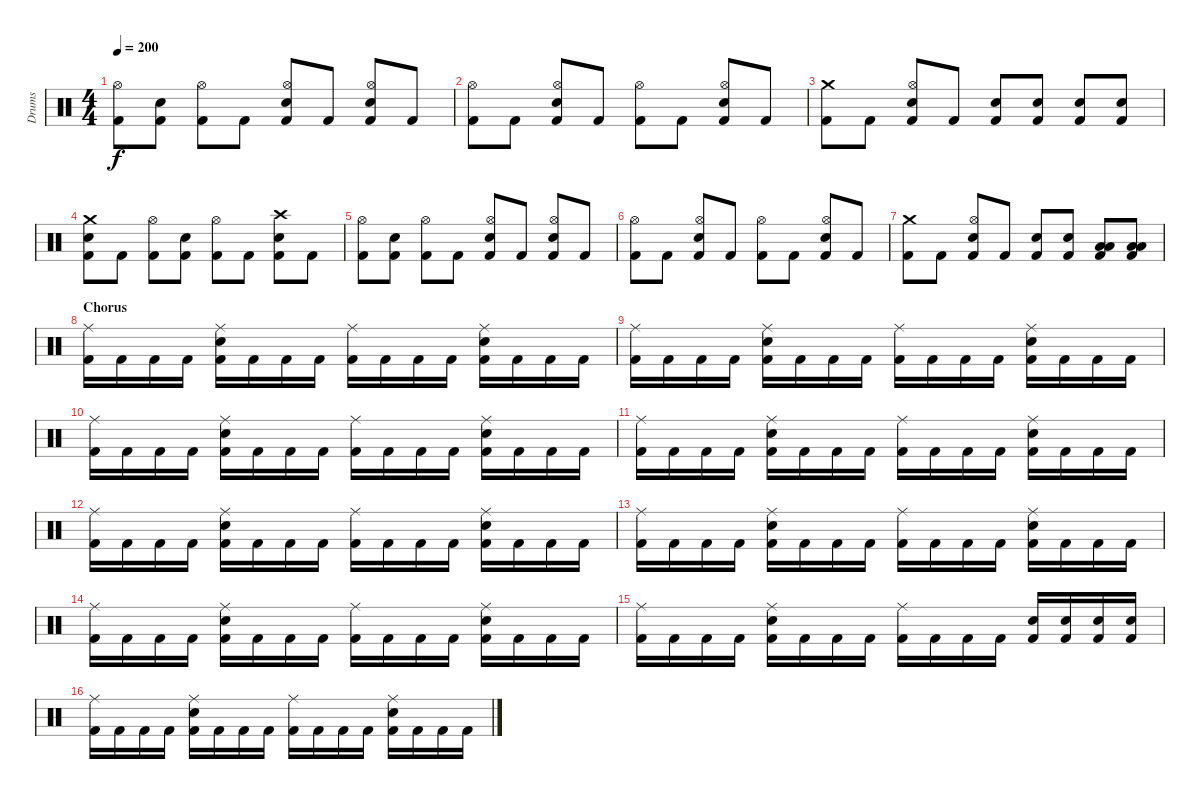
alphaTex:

\track ("Drums" "Drums") {instrument percussion}
\staff {score}
\articulation defaults
\ts (4 4)
\tempo 200
\clef neutral
\ks c
("Kick (hit) 2" "Hi-Hat (open)").8{dy f} ("Kick (hit) 2" "Snare (hit) 2").8 ("Kick (hit) 2" "Hi-Hat (open)").8 "Kick (hit) 2".8 ("Kick (hit) 2" "Snare (hit) 2" "Hi-Hat (open)").8 "Kick (hit) 2".8 ("Kick (hit) 2" "Snare (hit) 2" "Hi-Hat (open)").8 "Kick (hit) 2".8 |
("Kick (hit) 2" "Hi-Hat (open)").8 "Kick (hit) 2".8 ("Kick (hit) 2" "Snare (hit) 2" "Hi-Hat (open)").8 "Kick (hit) 2".8 ("Kick (hit) 2" "Hi-Hat (open)").8 "Kick (hit) 2".8 ("Kick (hit) 2" "Snare (hit) 2" "Hi-Hat (open)").8 "Kick (hit) 2".8 |
("Kick (hit) 2" "Crash medium (hit)").8 "Kick (hit) 2".8 ("Kick (hit) 2" "Snare (hit) 2" "Hi-Hat (open)").8 "Kick (hit) 2".8 ("Kick (hit) 2" "Snare (hit) 2").8 ("Kick (hit) 2" "Snare (hit) 2").8 ("Kick (hit) 2" "Snare (hit) 2").8 ("Kick (hit) 2" "Snare (hit) 2").8 |
("Kick (hit) 2" "Snare (hit) 2" "Crash medium (hit)").8 "Kick (hit) 2".8 ("Kick (hit) 2" "Hi-Hat (open)").8 ("Kick (hit) 2" "Snare (hit) 2").8 ("Kick (hit) 2" "Hi-Hat (open)").8 "Kick (hit) 2".8 ("Kick (hit) 2" "Snare (hit) 2" "Crash high (hit)").8 "Kick (hit) 2".8 |
("Kick (hit) 2" "Hi-Hat (open)").8 ("Kick (hit) 2" "Snare (hit) 2").8 ("Kick (hit) 2" "Hi-Hat (open)").8 "Kick (hit) 2".8 ("Kick (hit) 2" "Snare (hit) 2" "Hi-Hat (open)").8 "Kick (hit) 2".8 ("Kick (hit) 2" "Snare (hit) 2" "Hi-Hat (open)").8 "Kick (hit) 2".8 |
("Kick (hit) 2" "Hi-Hat (open)").8 "Kick (hit) 2".8 ("Kick (hit) 2" "Snare (hit) 2" "Hi-Hat (open)").8 "Kick (hit) 2".8 ("Kick (hit) 2" "Hi-Hat (open)").8 "Kick (hit) 2".8 ("Kick (hit) 2" "Snare (hit) 2" "Hi-Hat (open)").8 "Kick (hit) 2".8 |
("Kick (hit) 2" "Crash medium (hit)").8 "Kick (hit) 2".8 ("Kick (hit) 2" "Snare (hit) 2" "Hi-Hat (open)").8 "Kick (hit) 2".8 ("Kick (hit) 2" "Snare (hit) 2").8 ("Kick (hit) 2" "Snare (hit) 2").8 ("Kick (hit) 2" "Low Tom (hit)" "Low Tom (hit)").8 ("Kick (hit) 2" "Low Tom (hit)" "Low Tom (hit)").8 |
\section ("" "Chorus")
("Kick (hit) 2" "Ride (middle)").16 "Kick (hit) 2".16 "Kick (hit) 2".16 "Kick (hit) 2".16 ("Kick (hit) 2" "Snare (hit) 2" "Ride (middle)").16 "Kick (hit) 2".16 "Kick (hit) 2".16 "Kick (hit) 2".16 ("Kick (hit) 2" "Ride (middle)").16 "Kick (hit) 2".16 "Kick (hit) 2".16 "Kick (hit) 2".16 ("Kick (hit) 2" "Snare (hit) 2" "Ride (middle)").16 "Kick (hit) 2".16 "Kick (hit) 2".16 "Kick (hit) 2".16 |
("Kick (hit) 2" "Ride (middle)").16 "Kick (hit) 2".16 "Kick (hit) 2".16 "Kick (hit) 2".16 ("Kick (hit) 2" "Snare (hit) 2" "Ride (middle)").16 "Kick (hit) 2".16 "Kick (hit) 2".16 "Kick (hit) 2".16 ("Kick (hit) 2" "Ride (middle)").16 "Kick (hit) 2".16 "Kick (hit) 2".16 "Kick (hit) 2".16 ("Kick (hit) 2" "Snare (hit) 2" "Ride (middle)").16 "Kick (hit) 2".16 "Kick (hit) 2".16 "Kick (hit) 2".16 |
("Kick (hit) 2" "Ride (middle)").16 "Kick (hit) 2".16 "Kick (hit) 2".16 "Kick (hit) 2".16 ("Kick (hit) 2" "Snare (hit) 2" "Ride (middle)").16 "Kick (hit) 2".16 "Kick (hit) 2".16 "Kick (hit) 2".16 ("Kick (hit) 2" "Ride (middle)").16 "Kick (hit) 2".16 "Kick (hit) 2".16 "Kick (hit) 2".16 ("Kick (hit) 2" "Snare (hit) 2" "Ride (middle)").16 "Kick (hit) 2".16 "Kick (hit) 2".16 "Kick (hit) 2".16 |
("Kick (hit) 2" "Ride (middle)").16 "Kick (hit) 2".16 "Kick (hit) 2".16 "Kick (hit) 2".16 ("Kick (hit) 2" "Snare (hit) 2" "Ride (middle)").16 "Kick (hit) 2".16 "Kick (hit) 2".16 "Kick (hit) 2".16 ("Kick (hit) 2" "Ride (middle)").16 "Kick (hit) 2".16 "Kick (hit) 2".16 "Kick (hit) 2".16 ("Kick (hit) 2" "Snare (hit) 2" "Ride (middle)").16 "Kick (hit) 2".16 "Kick (hit) 2".16 "Kick (hit) 2".16 |
("Kick (hit) 2" "Ride (middle)").16 "Kick (hit) 2".16 "Kick (hit) 2".16 "Kick (hit) 2".16 ("Kick (hit) 2" "Snare (hit) 2" "Ride (middle)").16 "Kick (hit) 2".16 "Kick (hit) 2".16 "Kick (hit) 2".16 ("Kick (hit) 2" "Ride (middle)").16 "Kick (hit) 2".16 "Kick (hit) 2".16 "Kick (hit) 2".16 ("Kick (hit) 2" "Snare (hit) 2" "Ride (middle)").16 "Kick (hit) 2".16 "Kick (hit) 2".16 "Kick (hit) 2".16 |
("Kick (hit) 2" "Ride (middle)").16 "Kick (hit) 2".16 "Kick (hit) 2".16 "Kick (hit) 2".16 ("Kick (hit) 2" "Snare (hit) 2" "Ride (middle)").16 "Kick (hit) 2".16 "Kick (hit) 2".16 "Kick (hit) 2".16 ("Kick (hit) 2" "Ride (middle)").16 "Kick (hit) 2".16 "Kick (hit) 2".16 "Kick (hit) 2".16 ("Kick (hit) 2" "Snare (hit) 2" "Ride (middle)").16 "Kick (hit) 2".16 "Kick (hit) 2".16 "Kick (hit) 2".16 |
("Kick (hit) 2" "Ride (middle)").16 "Kick (hit) 2".16 "Kick (hit) 2".16 "Kick (hit) 2".16 ("Kick (hit) 2" "Snare (hit) 2" "Ride (middle)").16 "Kick (hit) 2".16 "Kick (hit) 2".16 "Kick (hit) 2".16 ("Kick (hit) 2" "Ride (middle)").16 "Kick (hit) 2".16 "Kick (hit) 2".16 "Kick (hit) 2".16 ("Kick (hit) 2" "Snare (hit) 2" "Ride (middle)").16 "Kick (hit) 2".16 "Kick (hit) 2".16 "Kick (hit) 2".16 |
("Kick (hit) 2" "Ride (middle)").16 "Kick (hit) 2".16 "Kick (hit) 2".16 "Kick (hit) 2".16 ("Kick (hit) 2" "Snare (hit) 2" "Ride (middle)").16 "Kick (hit) 2".16 "Kick (hit) 2".16 "Kick (hit) 2".16 ("Kick (hit) 2" "Ride (middle)").16 "Kick (hit) 2".16 "Kick (hit) 2".16 "Kick (hit) 2".16 ("Kick (hit) 2" "Snare (hit) 2").16 ("Kick (hit) 2" "Snare (hit) 2").16 ("Kick (hit) 2" "Snare (hit) 2").16 ("Kick (hit) 2" "Snare (hit) 2").16 |
("Kick (hit) 2" "Ride (middle)").16 "Kick (hit) 2".16 "Kick (hit) 2".16 "Kick (hit) 2".16 ("Kick (hit) 2" "Snare (hit) 2" "Ride (middle)").16 "Kick (hit) 2".16 "Kick (hit) 2".16 "Kick (hit) 2".16 ("Kick (hit) 2" "Ride (middle)").16 "Kick (hit) 2".16 "Kick (hit) 2".16 "Kick (hit) 2".16 ("Kick (hit) 2" "Snare (hit) 2" "Ride (middle)").16 "Kick (hit) 2".16 "Kick (hit) 2".16 "Kick (hit) 2".16
